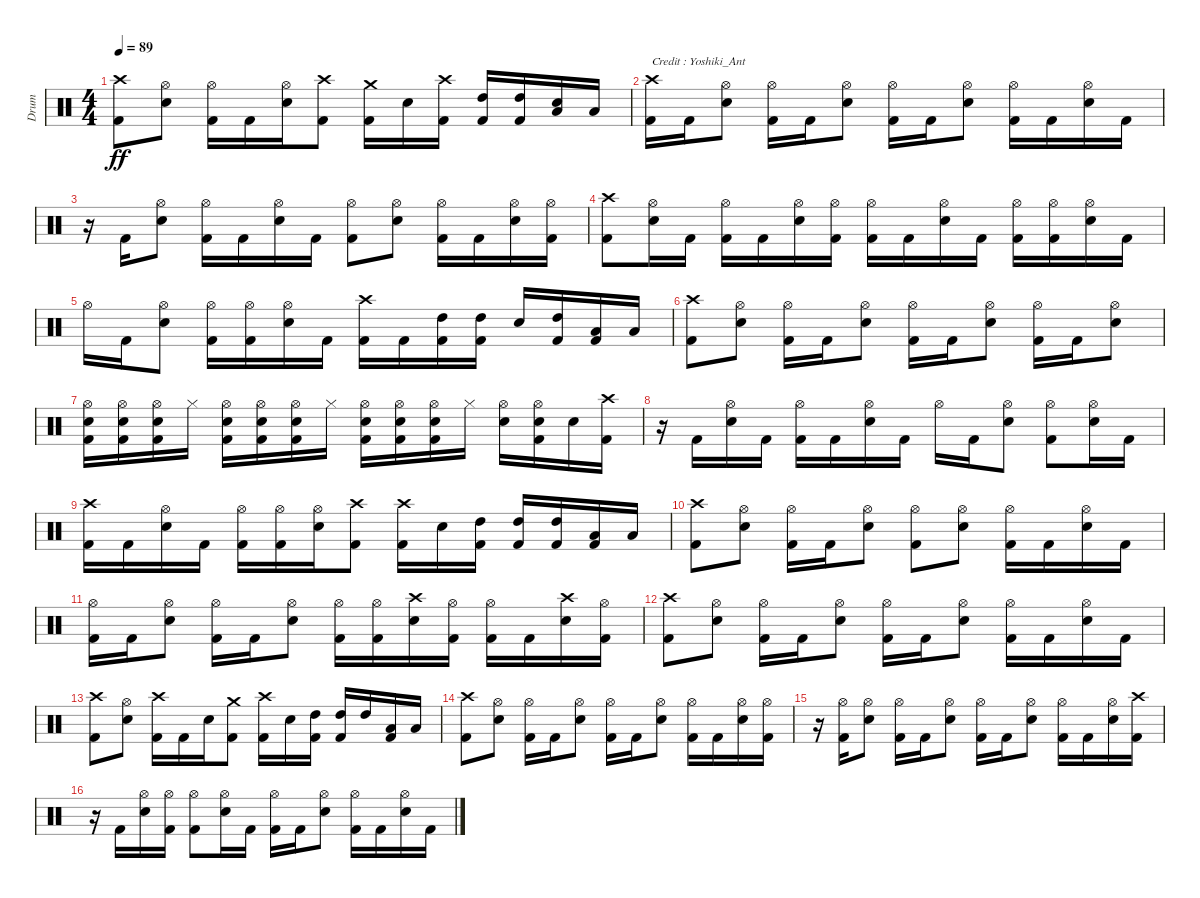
\track ("Drum" "Drum") {instrument percussion}
\staff {score}
\articulation defaults
\ts (4 4)
\tempo 89
\clef neutral
\ks c
("Kick (hit) 2" "Crash high (hit)").8{dy ff} ("Electric Snare (hit)" "Hi-Hat (open)").8 ("Kick (hit) 2" "Hi-Hat (open)").16 "Kick (hit) 2".16 ("Electric Snare (hit)" "Hi-Hat (open)").16 ("Kick (hit) 2" "Crash high (hit)").8 ("Kick (hit) 2" "Crash medium (hit)").16 "Electric Snare (hit)".16 ("Kick (hit) 2" "Crash high (hit)").16 ("Kick (hit) 2" "High Tom (hit)").16 ("High Tom (hit)" "Kick (hit) 2").16 ("Low Tom (hit)" "Electric Snare (hit)").16 "Low Floor Tom (hit)".16 |
("Crash high (hit)" "Kick (hit) 2").16{txt "Credit : Yoshiki_Ant"} "Kick (hit) 2".16 ("Electric Snare (hit)" "Hi-Hat (open)").8 ("Kick (hit) 2" "Hi-Hat (open)").16 "Kick (hit) 2".16 ("Electric Snare (hit)" "Hi-Hat (open)").8 ("Kick (hit) 2" "Hi-Hat (open)").16 "Kick (hit) 2".16 ("Electric Snare (hit)" "Hi-Hat (open)").8 ("Kick (hit) 2" "Hi-Hat (open)").16 "Kick (hit) 2".16 ("Electric Snare (hit)" "Hi-Hat (open)").16 "Kick (hit) 2".16 |
r.16 "Kick (hit) 2".16 ("Hi-Hat (open)" "Electric Snare (hit)").8 ("Kick (hit) 2" "Hi-Hat (open)").16 "Kick (hit) 2".16 ("Electric Snare (hit)" "Hi-Hat (open)").16 "Kick (hit) 2".16 ("Kick (hit) 2" "Hi-Hat (open)").8 ("Electric Snare (hit)" "Hi-Hat (open)").8 ("Kick (hit) 2" "Hi-Hat (open)").16 "Kick (hit) 2".16 ("Electric Snare (hit)" "Hi-Hat (open)").16 ("Kick (hit) 2" "Hi-Hat (open)").16 |
("Kick (hit) 2" "Crash high (hit)").8 ("Electric Snare (hit)" "Hi-Hat (open)").16 "Kick (hit) 2".16 ("Kick (hit) 2" "Hi-Hat (open)").16 "Kick (hit) 2".16 ("Electric Snare (hit)" "Hi-Hat (open)").16 ("Kick (hit) 2" "Hi-Hat (open)").16 ("Kick (hit) 2" "Hi-Hat (open)").16 "Kick (hit) 2".16 ("Electric Snare (hit)" "Hi-Hat (open)").16 "Kick (hit) 2".16 ("Kick (hit) 2" "Hi-Hat (open)").16 ("Kick (hit) 2" "Hi-Hat (open)").16 ("Electric Snare (hit)" "Hi-Hat (open)").16 "Kick (hit) 2".16 |
"Hi-Hat (open)".16 "Kick (hit) 2".16 ("Hi-Hat (open)" "Electric Snare (hit)").8 ("Kick (hit) 2" "Hi-Hat (open)").16 ("Kick (hit) 2" "Hi-Hat (open)").16 ("Electric Snare (hit)" "Hi-Hat (open)").16 "Kick (hit) 2".16 ("Kick (hit) 2" "Crash high (hit)").16 "Kick (hit) 2".16 ("Kick (hit) 2" "High Tom (hit)").16 ("Kick (hit) 2" "High Tom (hit)").16 "Electric Snare (hit)".16 ("High Tom (hit)" "Kick (hit) 2").16 ("Kick (hit) 2" "Low Tom (hit)").16 "Low Floor Tom (hit)".16 |
("Crash high (hit)" "Kick (hit) 2").8 ("Electric Snare (hit)" "Hi-Hat (open)").8 ("Kick (hit) 2" "Hi-Hat (open)").16 "Kick (hit) 2".16 ("Hi-Hat (open)" "Electric Snare (hit)").8 ("Kick (hit) 2" "Hi-Hat (open)").16 "Kick (hit) 2".16 ("Electric Snare (hit)" "Hi-Hat (open)").8 ("Kick (hit) 2" "Hi-Hat (open)").16 "Kick (hit) 2".16 ("Electric Snare (hit)" "Hi-Hat (open)").8 |
("Electric Snare (hit)" "Kick (hit) 2" "Hi-Hat (open)").16 ("Kick (hit) 2" "Electric Snare (hit)" "Hi-Hat (open)").16 ("Electric Snare (hit)" "Kick (hit) 2" "Hi-Hat (open)").16 "Hi-Hat (closed)".16 ("Kick (hit) 2" "Electric Snare (hit)" "Hi-Hat (open)").16 ("Electric Snare (hit)" "Kick (hit) 2" "Hi-Hat (open)").16 ("Kick (hit) 2" "Electric Snare (hit)" "Hi-Hat (open)").16 "Hi-Hat (closed)".16 ("Kick (hit) 2" "Electric Snare (hit)" "Hi-Hat (open)").16 ("Electric Snare (hit)" "Kick (hit) 2" "Hi-Hat (open)").16 ("Kick (hit) 2" "Electric Snare (hit)" "Hi-Hat (open)").16 "Hi-Hat (closed)".16 ("Electric Snare (hit)" "Hi-Hat (open)").16 ("Kick (hit) 2" "Hi-Hat (open)" "Electric Snare (hit)").16 "Electric Snare (hit)".16 ("Crash high (hit)" "Kick (hit) 2").16 |
r.16 "Kick (hit) 2".16 ("Hi-Hat (open)" "Electric Snare (hit)").16 "Kick (hit) 2".16 ("Kick (hit) 2" "Hi-Hat (open)").16 "Kick (hit) 2".16 ("Electric Snare (hit)" "Hi-Hat (open)").16 "Kick (hit) 2".16 "Hi-Hat (open)".16 "Kick (hit) 2".16 ("Electric Snare (hit)" "Hi-Hat (open)").8 ("Kick (hit) 2" "Hi-Hat (open)").8 ("Electric Snare (hit)" "Hi-Hat (open)").16 "Kick (hit) 2".16 |
("Kick (hit) 2" "Crash high (hit)").16 "Kick (hit) 2".16 ("Electric Snare (hit)" "Hi-Hat (open)").16 "Kick (hit) 2".16 ("Kick (hit) 2" "Hi-Hat (open)").16 ("Kick (hit) 2" "Hi-Hat (open)").16 ("Electric Snare (hit)" "Hi-Hat (open)").16 ("Kick (hit) 2" "Crash high (hit)").8 ("Kick (hit) 2" "Crash high (hit)").16 "Electric Snare (hit)".16 ("High Tom (hit)" "Kick (hit) 2").16 ("High Tom (hit)" "Kick (hit) 2").16 ("High Tom (hit)" "Kick (hit) 2").16 ("Kick (hit) 2" "Low Tom (hit)").16 "Low Floor Tom (hit)".16 |
("Crash high (hit)" "Kick (hit) 2").8 ("Electric Snare (hit)" "Hi-Hat (open)").8 ("Kick (hit) 2" "Hi-Hat (open)").16 "Kick (hit) 2".16 ("Hi-Hat (open)" "Electric Snare (hit)").8 ("Kick (hit) 2" "Hi-Hat (open)").8 ("Electric Snare (hit)" "Hi-Hat (open)").8 ("Kick (hit) 2" "Hi-Hat (open)").16 "Kick (hit) 2".16 ("Electric Snare (hit)" "Hi-Hat (open)").16 "Kick (hit) 2".16 |
("Kick (hit) 2" "Hi-Hat (open)").16 "Kick (hit) 2".16 ("Electric Snare (hit)" "Hi-Hat (open)").8 ("Kick (hit) 2" "Hi-Hat (open)").16 "Kick (hit) 2".16 ("Electric Snare (hit)" "Hi-Hat (open)").8 ("Kick (hit) 2" "Hi-Hat (open)").16 ("Kick (hit) 2" "Hi-Hat (open)").16 ("Electric Snare (hit)" "Crash high (hit)").16 ("Kick (hit) 2" "Hi-Hat (open)").16 ("Kick (hit) 2" "Hi-Hat (open)").16 "Kick (hit) 2".16 ("Electric Snare (hit)" "Crash high (hit)").16 ("Kick (hit) 2" "Hi-Hat (open)").16 |
("Kick (hit) 2" "Crash high (hit)").8 ("Electric Snare (hit)" "Hi-Hat (open)").8 ("Kick (hit) 2" "Hi-Hat (open)").16 "Kick (hit) 2".16 ("Electric Snare (hit)" "Hi-Hat (open)").8 ("Kick (hit) 2" "Hi-Hat (open)").16 "Kick (hit) 2".16 ("Electric Snare (hit)" "Hi-Hat (open)").8 ("Kick (hit) 2" "Hi-Hat (open)").16 "Kick (hit) 2".16 ("Electric Snare (hit)" "Hi-Hat (open)").16 "Kick (hit) 2".16 |
("Kick (hit) 2" "Crash high (hit)").8 ("Electric Snare (hit)" "Hi-Hat (open)").8 ("Crash high (hit)" "Kick (hit) 2").16 "Kick (hit) 2".16 "Electric Snare (hit)".16 ("Kick (hit) 2" "Crash medium (hit)").8 ("Crash high (hit)" "Kick (hit) 2").16 "Electric Snare (hit)".16 ("High Tom (hit)" "Kick (hit) 2").16 ("High Tom (hit)" "Kick (hit) 2").16 "High Tom (hit)".16 ("Kick (hit) 2" "Low Tom (hit)").16 "Low Floor Tom (hit)".16 |
("Kick (hit) 2" "Crash high (hit)").8 ("Electric Snare (hit)" "Hi-Hat (open)").8 ("Kick (hit) 2" "Hi-Hat (open)").16 "Kick (hit) 2".16 ("Electric Snare (hit)" "Hi-Hat (open)").8 ("Kick (hit) 2" "Hi-Hat (open)").16 "Kick (hit) 2".16 ("Hi-Hat (open)" "Electric Snare (hit)").8 ("Kick (hit) 2" "Hi-Hat (open)").16 "Kick (hit) 2".16 ("Electric Snare (hit)" "Hi-Hat (open)").16 ("Kick (hit) 2" "Hi-Hat (open)").16 |
r.16 ("Kick (hit) 2" "Hi-Hat (open)").16 ("Electric Snare (hit)" "Hi-Hat (open)").8 ("Kick (hit) 2" "Hi-Hat (open)").16 "Kick (hit) 2".16 ("Electric Snare (hit)" "Hi-Hat (open)").8 ("Kick (hit) 2" "Hi-Hat (open)").16 "Kick (hit) 2".16 ("Electric Snare (hit)" "Hi-Hat (open)").8 ("Kick (hit) 2" "Hi-Hat (open)").16 "Kick (hit) 2".16 ("Electric Snare (hit)" "Hi-Hat (open)").16 ("Kick (hit) 2" "Crash high (hit)").16 |
r.16 "Kick (hit) 2".16 ("Electric Snare (hit)" "Hi-Hat (open)").16 ("Kick (hit) 2" "Hi-Hat (open)").16 ("Kick (hit) 2" "Hi-Hat (open)").8 ("Electric Snare (hit)" "Hi-Hat (open)").16 "Kick (hit) 2".16 ("Kick (hit) 2" "Hi-Hat (open)").16 "Kick (hit) 2".16 ("Hi-Hat (open)" "Electric Snare (hit)").8 ("Kick (hit) 2" "Hi-Hat (open)").16 "Kick (hit) 2".16 ("Electric Snare (hit)" "Hi-Hat (open)").16 "Kick (hit) 2".16
